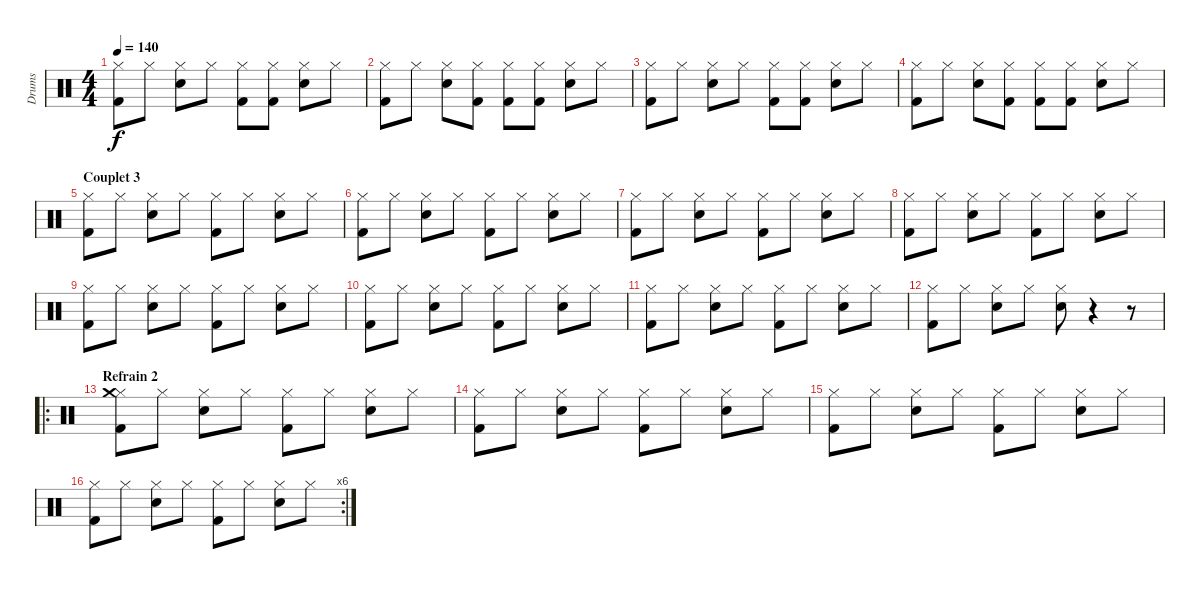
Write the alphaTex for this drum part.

\track ("Drums" "Drums") {instrument percussion}
\staff {score}
\articulation defaults
\ts (4 4)
\tempo 140
\clef neutral
\ks c
("Hi-Hat (closed)" "Kick (hit) 2").8{dy f} "Hi-Hat (closed)".8 ("Hi-Hat (closed)" "Electric Snare (hit)").8 "Hi-Hat (closed)".8 ("Hi-Hat (closed)" "Kick (hit) 2").8 ("Hi-Hat (closed)" "Kick (hit) 2").8 ("Hi-Hat (closed)" "Electric Snare (hit)").8 "Hi-Hat (closed)".8 |
("Hi-Hat (closed)" "Kick (hit) 2").8 "Hi-Hat (closed)".8 ("Hi-Hat (closed)" "Electric Snare (hit)").8 ("Hi-Hat (closed)" "Kick (hit) 2").8 ("Hi-Hat (closed)" "Kick (hit) 2").8 ("Hi-Hat (closed)" "Kick (hit) 2").8 ("Hi-Hat (closed)" "Electric Snare (hit)").8 "Hi-Hat (closed)".8 |
("Hi-Hat (closed)" "Kick (hit) 2").8 "Hi-Hat (closed)".8 ("Hi-Hat (closed)" "Electric Snare (hit)").8 "Hi-Hat (closed)".8 ("Hi-Hat (closed)" "Kick (hit) 2").8 ("Hi-Hat (closed)" "Kick (hit) 2").8 ("Hi-Hat (closed)" "Electric Snare (hit)").8 "Hi-Hat (closed)".8 |
("Hi-Hat (closed)" "Kick (hit) 2").8 "Hi-Hat (closed)".8 ("Hi-Hat (closed)" "Electric Snare (hit)").8 ("Hi-Hat (closed)" "Kick (hit) 2").8 ("Hi-Hat (closed)" "Kick (hit) 2").8 ("Hi-Hat (closed)" "Kick (hit) 2").8 ("Hi-Hat (closed)" "Electric Snare (hit)").8 "Hi-Hat (closed)".8 |
\section ("" "Couplet 3")
("Hi-Hat (closed)" "Kick (hit) 2").8 "Hi-Hat (closed)".8 ("Hi-Hat (closed)" "Electric Snare (hit)").8 "Hi-Hat (closed)".8 ("Hi-Hat (closed)" "Kick (hit) 2").8 "Hi-Hat (closed)".8 ("Hi-Hat (closed)" "Electric Snare (hit)").8 "Hi-Hat (closed)".8 |
("Hi-Hat (closed)" "Kick (hit) 2").8 "Hi-Hat (closed)".8 ("Hi-Hat (closed)" "Electric Snare (hit)").8 "Hi-Hat (closed)".8 ("Hi-Hat (closed)" "Kick (hit) 2").8 "Hi-Hat (closed)".8 ("Hi-Hat (closed)" "Electric Snare (hit)").8 "Hi-Hat (closed)".8 |
("Hi-Hat (closed)" "Kick (hit) 2").8 "Hi-Hat (closed)".8 ("Hi-Hat (closed)" "Electric Snare (hit)").8 "Hi-Hat (closed)".8 ("Hi-Hat (closed)" "Kick (hit) 2").8 "Hi-Hat (closed)".8 ("Hi-Hat (closed)" "Electric Snare (hit)").8 "Hi-Hat (closed)".8 |
("Hi-Hat (closed)" "Kick (hit) 2").8 "Hi-Hat (closed)".8 ("Hi-Hat (closed)" "Electric Snare (hit)").8 "Hi-Hat (closed)".8 ("Hi-Hat (closed)" "Kick (hit) 2").8 "Hi-Hat (closed)".8 ("Hi-Hat (closed)" "Electric Snare (hit)").8 "Hi-Hat (closed)".8 |
("Hi-Hat (closed)" "Kick (hit) 2").8 "Hi-Hat (closed)".8 ("Hi-Hat (closed)" "Electric Snare (hit)").8 "Hi-Hat (closed)".8 ("Hi-Hat (closed)" "Kick (hit) 2").8 "Hi-Hat (closed)".8 ("Hi-Hat (closed)" "Electric Snare (hit)").8 "Hi-Hat (closed)".8 |
("Hi-Hat (closed)" "Kick (hit) 2").8 "Hi-Hat (closed)".8 ("Hi-Hat (closed)" "Electric Snare (hit)").8 "Hi-Hat (closed)".8 ("Hi-Hat (closed)" "Kick (hit) 2").8 "Hi-Hat (closed)".8 ("Hi-Hat (closed)" "Electric Snare (hit)").8 "Hi-Hat (closed)".8 |
("Hi-Hat (closed)" "Kick (hit) 2").8 "Hi-Hat (closed)".8 ("Hi-Hat (closed)" "Electric Snare (hit)").8 "Hi-Hat (closed)".8 ("Hi-Hat (closed)" "Kick (hit) 2").8 "Hi-Hat (closed)".8 ("Hi-Hat (closed)" "Electric Snare (hit)").8 "Hi-Hat (closed)".8 |
("Hi-Hat (closed)" "Kick (hit) 2").8 "Hi-Hat (closed)".8 ("Hi-Hat (closed)" "Electric Snare (hit)").8 "Hi-Hat (closed)".8 ("Hi-Hat (closed)" "Electric Snare (hit)").8 r.4 r.8 |
\ro
\section ("" "Refrain 2")
("Hi-Hat (closed)" "Crash medium (hit)" "Kick (hit) 2").8 "Hi-Hat (closed)".8 ("Hi-Hat (closed)" "Electric Snare (hit)").8 "Hi-Hat (closed)".8 ("Hi-Hat (closed)" "Kick (hit) 2").8 "Hi-Hat (closed)".8 ("Hi-Hat (closed)" "Electric Snare (hit)").8 "Hi-Hat (closed)".8 |
("Hi-Hat (closed)" "Kick (hit) 2").8 "Hi-Hat (closed)".8 ("Hi-Hat (closed)" "Electric Snare (hit)").8 "Hi-Hat (closed)".8 ("Hi-Hat (closed)" "Kick (hit) 2").8 "Hi-Hat (closed)".8 ("Hi-Hat (closed)" "Electric Snare (hit)").8 "Hi-Hat (closed)".8 |
("Hi-Hat (closed)" "Kick (hit) 2").8 "Hi-Hat (closed)".8 ("Hi-Hat (closed)" "Electric Snare (hit)").8 "Hi-Hat (closed)".8 ("Hi-Hat (closed)" "Kick (hit) 2").8 "Hi-Hat (closed)".8 ("Hi-Hat (closed)" "Electric Snare (hit)").8 "Hi-Hat (closed)".8 |
\rc 6
("Hi-Hat (closed)" "Kick (hit) 2").8 "Hi-Hat (closed)".8 ("Hi-Hat (closed)" "Electric Snare (hit)").8 "Hi-Hat (closed)".8 ("Hi-Hat (closed)" "Kick (hit) 2").8 "Hi-Hat (closed)".8 ("Hi-Hat (closed)" "Electric Snare (hit)").8 "Hi-Hat (closed)".8
